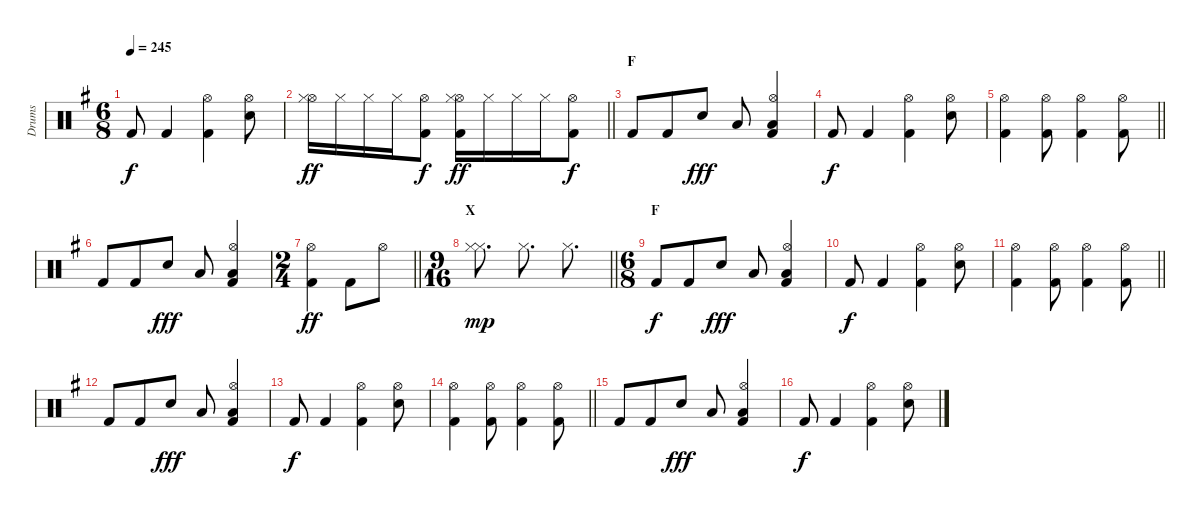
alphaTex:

\track ("Drums" "Drums") {instrument percussion}
\staff {score}
\articulation defaults
\ts (6 8)
\tempo 245
\clef neutral
\ks eminor "Kick (hit) 2".8{dy f} "Kick (hit) 2".4
("Hi-Hat (open)" "Kick (hit) 2").4 ("Hi-Hat (open)" "Electric Snare (hit)").8 |
\barLineRight lightlight
("Hi-Hat (open)" "Hi-Hat (closed)").16{dy ff} "Hi-Hat (closed)".16 "Hi-Hat (closed)".16 "Hi-Hat (closed)".16 ("Hi-Hat (open)" "Kick (hit) 2").8{dy f} ("Hi-Hat (open)" "Hi-Hat (closed)" "Kick (hit) 2").16{dy ff} "Hi-Hat (closed)".16 "Hi-Hat (closed)".16 "Hi-Hat (closed)".16 ("Hi-Hat (open)" "Kick (hit) 2").8{dy f} |
\section ("" "F")
"Kick (hit) 2".8 "Kick (hit) 2".8 "Electric Snare (hit)".8{dy fff} "Low Tom (hit)".8 ("Hi-Hat (open)" "Low Floor Tom (hit)" "Kick (hit) 2").4 |
"Kick (hit) 2".8{dy f} "Kick (hit) 2".4 ("Hi-Hat (open)" "Kick (hit) 2").4 ("Hi-Hat (open)" "Electric Snare (hit)").8 |
\barLineRight lightlight
("Hi-Hat (open)" "Kick (hit) 2").4 ("Hi-Hat (open)" "Kick (hit) 2").8 ("Hi-Hat (open)" "Kick (hit) 2").4 ("Hi-Hat (open)" "Kick (hit) 2").8 |
\section ("" "")
"Kick (hit) 2".8 "Kick (hit) 2".8 "Electric Snare (hit)".8{dy fff} "Low Tom (hit)".8 ("Hi-Hat (open)" "Low Floor Tom (hit)" "Kick (hit) 2").4 |
\ts (2 4)
\barLineRight lightlight
("Hi-Hat (open)" "Kick (hit) 2").4{dy ff} "Kick (hit) 2".8 "Hi-Hat (open)".8 |
\ts (9 16)
\section ("" "X")
\barLineRight lightlight
("Hi-Hat (closed)" "Hi-Hat (closed)").8{d dy mp} "Hi-Hat (closed)".8{d} "Hi-Hat (closed)".8{d} |
\ts (6 8)
\section ("" "F")
"Kick (hit) 2".8{dy f} "Kick (hit) 2".8 "Electric Snare (hit)".8{dy fff} "Low Tom (hit)".8 ("Hi-Hat (open)" "Low Floor Tom (hit)" "Kick (hit) 2").4 |
"Kick (hit) 2".8{dy f} "Kick (hit) 2".4 ("Hi-Hat (open)" "Kick (hit) 2").4 ("Hi-Hat (open)" "Electric Snare (hit)").8 |
\barLineRight lightlight
("Hi-Hat (open)" "Kick (hit) 2").4 ("Hi-Hat (open)" "Kick (hit) 2").8 ("Hi-Hat (open)" "Kick (hit) 2").4 ("Hi-Hat (open)" "Kick (hit) 2").8 |
\section ("" "")
"Kick (hit) 2".8 "Kick (hit) 2".8 "Electric Snare (hit)".8{dy fff} "Low Tom (hit)".8 ("Hi-Hat (open)" "Low Floor Tom (hit)" "Kick (hit) 2").4 |
"Kick (hit) 2".8{dy f} "Kick (hit) 2".4 ("Hi-Hat (open)" "Kick (hit) 2").4 ("Hi-Hat (open)" "Electric Snare (hit)").8 |
\barLineRight lightlight
("Hi-Hat (open)" "Kick (hit) 2").4 ("Hi-Hat (open)" "Kick (hit) 2").8 ("Hi-Hat (open)" "Kick (hit) 2").4 ("Hi-Hat (open)" "Kick (hit) 2").8 |
\section ("" "")
"Kick (hit) 2".8 "Kick (hit) 2".8 "Electric Snare (hit)".8{dy fff} "Low Tom (hit)".8 ("Hi-Hat (open)" "Low Floor Tom (hit)" "Kick (hit) 2").4 |
"Kick (hit) 2".8{dy f} "Kick (hit) 2".4 ("Hi-Hat (open)" "Kick (hit) 2").4 ("Hi-Hat (open)" "Electric Snare (hit)").8
